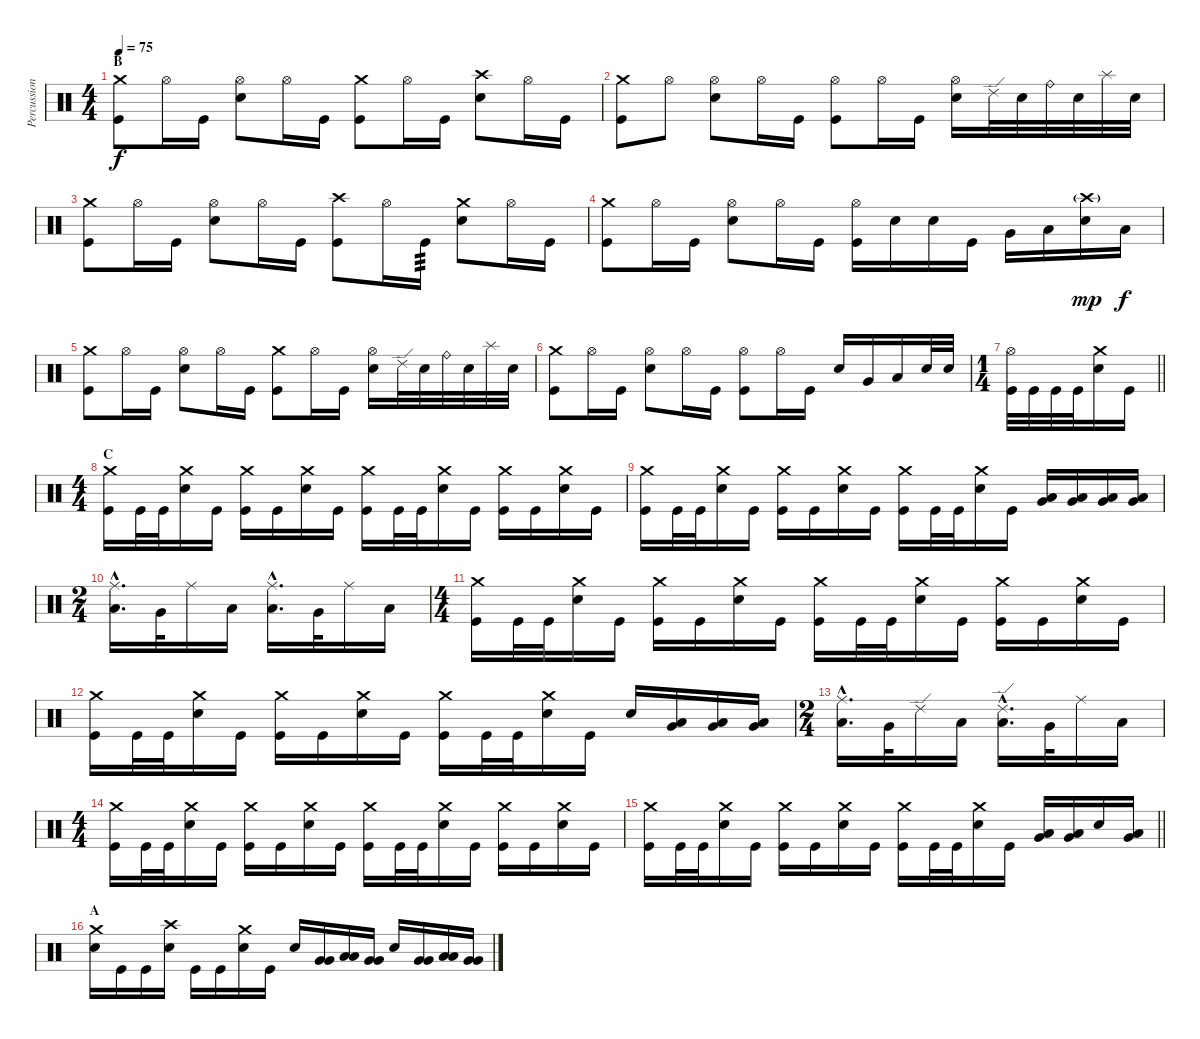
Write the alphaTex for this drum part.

\track ("Percussion" "Percussion") {instrument percussion}
\staff {score}
\articulation defaults
\ts (4 4)
\section ("" "B")
\tempo 75
\clef neutral
\ks c
("Kick (hit)" "Crash medium (hit)").8{dy f} "Hi-Hat (open)".16 "Kick (hit)".16 ("Snare (hit) 2" "Hi-Hat (open)").8 "Hi-Hat (open)".16 "Kick (hit)".16 ("Kick (hit)" "Crash medium (hit)").8 "Hi-Hat (open)".16 "Kick (hit)".16 ("Snare (hit) 2" "Crash high (hit)").8 "Hi-Hat (open)".16 "Kick (hit)".16 |
("Kick (hit)" "Crash medium (hit)").8 "Hi-Hat (open)".8 ("Snare (hit) 2" "Hi-Hat (open)").8 "Hi-Hat (open)".16 "Kick (hit)".16 ("Kick (hit)" "Hi-Hat (open)").8 "Hi-Hat (open)".16 "Kick (hit)".16 ("Snare (hit) 2" "Hi-Hat (open)").16 "Ride (edge) 2".32 "Snare (hit) 2".32 "Ride (bell)".32 "Snare (hit) 2".32 "Splash (hit)".32 "Snare (hit) 2".32 |
("Kick (hit)" "Crash medium (hit)").8 "Hi-Hat (open)".16 "Kick (hit)".16 ("Snare (hit) 2" "Hi-Hat (open)").8 "Hi-Hat (open)".16 "Kick (hit)".16 ("Kick (hit)" "Crash high (hit)").8 "Hi-Hat (open)".16 "Kick (hit)".16{tp 3} ("Snare (hit) 2" "Crash medium (hit)").8 "Hi-Hat (open)".16 "Kick (hit)".16 |
("Kick (hit)" "Crash medium (hit)").8 "Hi-Hat (open)".16 "Kick (hit)".16 ("Snare (hit) 2" "Hi-Hat (open)").8 "Hi-Hat (open)".16 "Kick (hit)".16 ("Kick (hit)" "Hi-Hat (open)").16 "Snare (hit) 2".16 "Snare (hit) 2".16 "Kick (hit)".16 "Very Low Tom (hit)".16 "Low Floor Tom (hit)".16 ("Snare (hit) 2" "Crash high (hit)"{g}).16{dy mp} "Low Floor Tom (hit)".16{dy f} |
("Kick (hit)" "Crash medium (hit)").8 "Hi-Hat (open)".16 "Kick (hit)".16 ("Snare (hit) 2" "Hi-Hat (open)").8 "Hi-Hat (open)".16 "Kick (hit)".16 ("Kick (hit)" "Crash medium (hit)").8 "Hi-Hat (open)".16 "Kick (hit)".16 ("Snare (hit) 2" "Hi-Hat (open)").16 "Ride (edge) 2".32 "Snare (hit) 2".32 "Ride (bell)".32 "Snare (hit) 2".32 "Splash (hit)".32 "Snare (hit) 2".32 |
("Kick (hit)" "Crash medium (hit)").8 "Hi-Hat (open)".16 "Kick (hit)".16 ("Snare (hit) 2" "Hi-Hat (open)").8 "Hi-Hat (open)".16 "Kick (hit)".16 ("Kick (hit)" "Hi-Hat (open)").8 "Hi-Hat (open)".16 "Kick (hit)".16 "Snare (hit) 2".16 "Very Low Tom (hit)".16 "Low Floor Tom (hit)".16 "Snare (hit) 2".32 "Snare (hit) 2".32 |
\ts (1 4)
\barLineRight lightlight
("Kick (hit)" "Hi-Hat (open)").32 "Kick (hit)".32 "Kick (hit)".32 "Kick (hit)".32 ("Snare (hit) 2" "Crash medium (hit)").16 "Kick (hit)".16 |
\ts (4 4)
\section ("" "C")
("Kick (hit)" "Crash medium (hit)").16 "Kick (hit)".32 "Kick (hit)".32 ("Snare (hit) 2" "Crash medium (hit)").16 "Kick (hit)".16 ("Kick (hit)" "Crash medium (hit)").16 "Kick (hit)".16 ("Snare (hit) 2" "Crash medium (hit)").16 "Kick (hit)".16 ("Kick (hit)" "Crash medium (hit)").16 "Kick (hit)".32 "Kick (hit)".32 ("Snare (hit) 2" "Crash medium (hit)").16 "Kick (hit)".16 ("Kick (hit)" "Crash medium (hit)").16 "Kick (hit)".16 ("Snare (hit) 2" "Crash medium (hit)").16 "Kick (hit)".16 |
("Kick (hit)" "Crash medium (hit)").16 "Kick (hit)".32 "Kick (hit)".32 ("Snare (hit) 2" "Crash medium (hit)").16 "Kick (hit)".16 ("Kick (hit)" "Crash medium (hit)").16 "Kick (hit)".16 ("Snare (hit) 2" "Crash medium (hit)").16 "Kick (hit)".16 ("Kick (hit)" "Crash medium (hit)").16 "Kick (hit)".32 "Kick (hit)".32 ("Snare (hit) 2" "Crash medium (hit)").16 "Kick (hit)".16 ("Low Floor Tom (hit)" "Very Low Tom (hit)").16 ("Very Low Tom (hit)" "Low Tom (hit)").16 ("Low Floor Tom (hit)" "Very Low Tom (hit)").16 ("Very Low Tom (hit)" "Low Tom (hit)").16 |
\ts (2 4)
("Low Floor Tom (hit)"{hac} "Ride (middle)"{hac}).16{d} "Very Low Tom (hit)".32 "Ride (middle)".16 "Low Floor Tom (hit)".16 ("Low Floor Tom (hit)"{hac} "Ride (middle)"{hac}).16{d} "Very Low Tom (hit)".32 "Ride (middle)".16 "Low Floor Tom (hit)".16 |
\ts (4 4)
("Kick (hit)" "Crash medium (hit)").16 "Kick (hit)".32 "Kick (hit)".32 ("Snare (hit) 2" "Crash medium (hit)").16 "Kick (hit)".16 ("Kick (hit)" "Crash medium (hit)").16 "Kick (hit)".16 ("Snare (hit) 2" "Crash medium (hit)").16 "Kick (hit)".16 ("Kick (hit)" "Crash medium (hit)").16 "Kick (hit)".32 "Kick (hit)".32 ("Snare (hit) 2" "Crash medium (hit)").16 "Kick (hit)".16 ("Kick (hit)" "Crash medium (hit)").16 "Kick (hit)".16 ("Snare (hit) 2" "Crash medium (hit)").16 "Kick (hit)".16 |
("Kick (hit)" "Crash medium (hit)").16 "Kick (hit)".32 "Kick (hit)".32 ("Snare (hit) 2" "Crash medium (hit)").16 "Kick (hit)".16 ("Kick (hit)" "Crash medium (hit)").16 "Kick (hit)".16 ("Snare (hit) 2" "Crash medium (hit)").16 "Kick (hit)".16 ("Kick (hit)" "Crash medium (hit)").16 "Kick (hit)".32 "Kick (hit)".32 ("Snare (hit) 2" "Crash medium (hit)").16 "Kick (hit)".16 "Snare (hit) 2".16 ("Very Low Tom (hit)" "Low Tom (hit)").16 ("Low Floor Tom (hit)" "Very Low Tom (hit)").16 ("Very Low Tom (hit)" "Low Tom (hit)").16 |
\ts (2 4)
("Low Floor Tom (hit)"{hac} "Ride (middle)"{hac}).16{d} "Very Low Tom (hit)".32 "Ride (edge) 2".16 "Low Floor Tom (hit)".16 ("Low Floor Tom (hit)"{hac} "Ride (edge) 2"{hac}).16{d} "Very Low Tom (hit)".32 "Ride (middle)".16 "Low Floor Tom (hit)".16 |
\ts (4 4)
("Kick (hit)" "Crash medium (hit)").16 "Kick (hit)".32 "Kick (hit)".32 ("Snare (hit) 2" "Crash medium (hit)").16 "Kick (hit)".16 ("Kick (hit)" "Crash medium (hit)").16 "Kick (hit)".16 ("Snare (hit) 2" "Crash medium (hit)").16 "Kick (hit)".16 ("Kick (hit)" "Crash medium (hit)").16 "Kick (hit)".32 "Kick (hit)".32 ("Snare (hit) 2" "Crash medium (hit)").16 "Kick (hit)".16 ("Kick (hit)" "Crash medium (hit)").16 "Kick (hit)".16 ("Snare (hit) 2" "Crash medium (hit)").16 "Kick (hit)".16 |
\barLineRight lightlight
("Kick (hit)" "Crash medium (hit)").16 "Kick (hit)".32 "Kick (hit)".32 ("Snare (hit) 2" "Crash medium (hit)").16 "Kick (hit)".16 ("Kick (hit)" "Crash medium (hit)").16 "Kick (hit)".16 ("Snare (hit) 2" "Crash medium (hit)").16 "Kick (hit)".16 ("Kick (hit)" "Crash medium (hit)").16 "Kick (hit)".32 "Kick (hit)".32 ("Snare (hit) 2" "Crash medium (hit)").16 "Kick (hit)".16 ("Very Low Tom (hit)" "Low Tom (hit)").16 ("Low Floor Tom (hit)" "Very Low Tom (hit)").16 "Snare (hit) 2".16 ("Very Low Tom (hit)" "Low Tom (hit)").16 |
\section ("" "A")
("Snare (hit) 2" "Crash medium (hit)").16 "Kick (hit)".16 "Kick (hit)".16 ("Snare (hit) 2" "Crash high (hit)").16 "Kick (hit)".16 "Kick (hit)".16 ("Snare (hit) 2" "Crash medium (hit)").16 "Kick (hit)".16 "Snare (hit) 2".16 ("Very Low Tom (hit)" "Very Low Tom (hit)").16 ("Low Floor Tom (hit)" "Low Floor Tom (hit)").16 ("Very Low Tom (hit)" "Very Low Tom (hit)").16 "Snare (hit) 2".16 ("Very Low Tom (hit)" "Very Low Tom (hit)").16 ("Low Floor Tom (hit)" "Low Floor Tom (hit)").16 ("Very Low Tom (hit)" "Very Low Tom (hit)").16
